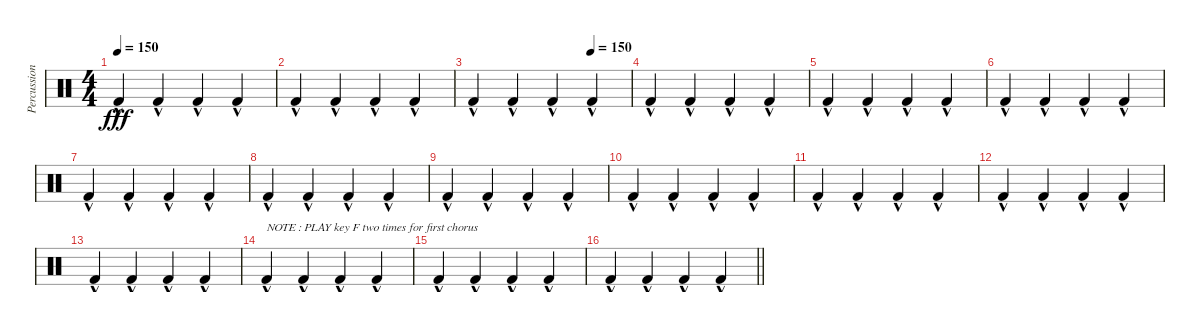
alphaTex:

\track ("Percussion" "Percussion") {instrument percussion}
\staff {score}
\articulation defaults
\ts (4 4)
\tempo 150
\clef neutral
\ks c "Kick (hit) 2"{hac}.4{dy fff} "Kick (hit) 2"{hac}.4 "Kick (hit) 2"{hac}.4 "Kick (hit) 2"{hac}.4
|
"Kick (hit) 2"{hac}.4 "Kick (hit) 2"{hac}.4 "Kick (hit) 2"{hac}.4 "Kick (hit) 2"{hac}.4 |
\tempo (150 0.75)
"Kick (hit) 2"{hac}.4 "Kick (hit) 2"{hac}.4 "Kick (hit) 2"{hac}.4 "Kick (hit) 2"{hac}.4 |
"Kick (hit) 2"{hac}.4 "Kick (hit) 2"{hac}.4 "Kick (hit) 2"{hac}.4 "Kick (hit) 2"{hac}.4 |
"Kick (hit) 2"{hac}.4 "Kick (hit) 2"{hac}.4 "Kick (hit) 2"{hac}.4 "Kick (hit) 2"{hac}.4 |
"Kick (hit) 2"{hac}.4 "Kick (hit) 2"{hac}.4 "Kick (hit) 2"{hac}.4 "Kick (hit) 2"{hac}.4 |
"Kick (hit) 2"{hac}.4 "Kick (hit) 2"{hac}.4 "Kick (hit) 2"{hac}.4 "Kick (hit) 2"{hac}.4 |
"Kick (hit) 2"{hac}.4 "Kick (hit) 2"{hac}.4 "Kick (hit) 2"{hac}.4 "Kick (hit) 2"{hac}.4 |
"Kick (hit) 2"{hac}.4 "Kick (hit) 2"{hac}.4 "Kick (hit) 2"{hac}.4 "Kick (hit) 2"{hac}.4 |
"Kick (hit) 2"{hac}.4 "Kick (hit) 2"{hac}.4 "Kick (hit) 2"{hac}.4 "Kick (hit) 2"{hac}.4 |
"Kick (hit) 2"{hac}.4 "Kick (hit) 2"{hac}.4 "Kick (hit) 2"{hac}.4 "Kick (hit) 2"{hac}.4 |
"Kick (hit) 2"{hac}.4 "Kick (hit) 2"{hac}.4 "Kick (hit) 2"{hac}.4 "Kick (hit) 2"{hac}.4 |
"Kick (hit) 2"{hac}.4 "Kick (hit) 2"{hac}.4 "Kick (hit) 2"{hac}.4 "Kick (hit) 2"{hac}.4 |
"Kick (hit) 2"{hac}.4{txt "NOTE : PLAY key F two times for first chorus"} "Kick (hit) 2"{hac}.4 "Kick (hit) 2"{hac}.4 "Kick (hit) 2"{hac}.4 |
"Kick (hit) 2"{hac}.4 "Kick (hit) 2"{hac}.4 "Kick (hit) 2"{hac}.4 "Kick (hit) 2"{hac}.4 |
\barLineRight lightlight "Kick (hit) 2"{hac}.4 "Kick (hit) 2"{hac}.4 "Kick (hit) 2"{hac}.4 "Kick (hit) 2"{hac}.4
